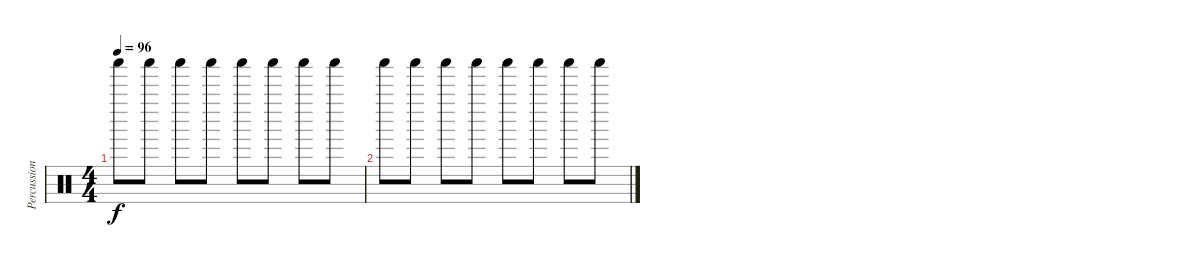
\track ("Percussion" "Percussion") {instrument percussion}
\staff {score}
\articulation defaults
\ts (4 4)
\tempo 96
\clef neutral
\ks c "Shaker (hit)".8{dy f} "Shaker (hit)".8 "Shaker (hit)".8 "Shaker (hit)".8 "Shaker (hit)".8 "Shaker (hit)".8 "Shaker (hit)".8 "Shaker (hit)".8
|
"Shaker (hit)".8 "Shaker (hit)".8 "Shaker (hit)".8 "Shaker (hit)".8 "Shaker (hit)".8 "Shaker (hit)".8 "Shaker (hit)".8 "Shaker (hit)".8
